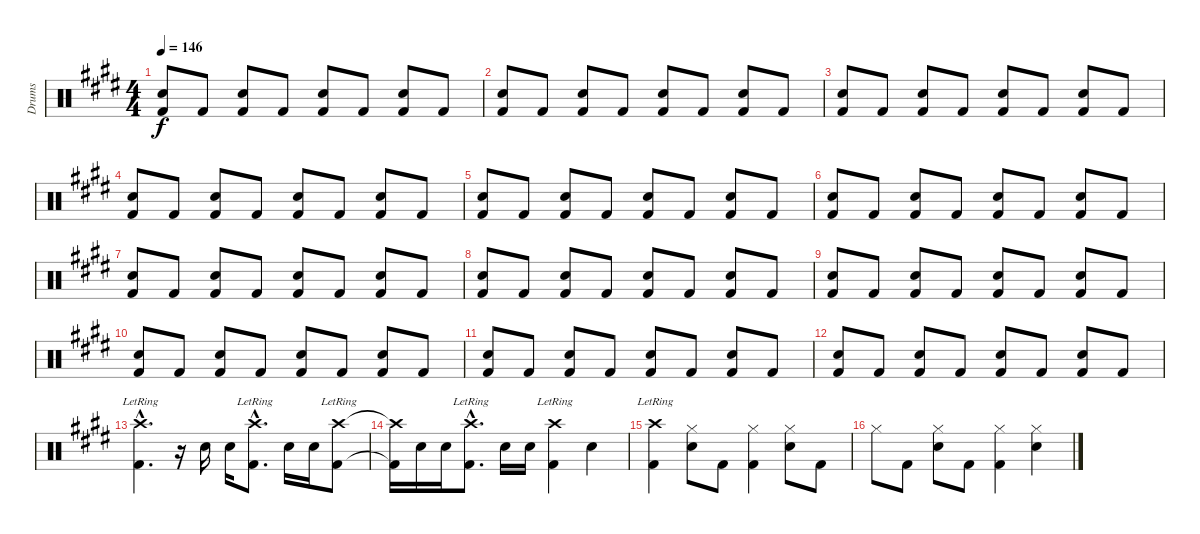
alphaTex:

\track ("Drums" "Drums") {instrument percussion}
\staff {score}
\articulation defaults
\ts (4 4)
\tempo 146
\clef neutral
\ks e
("Kick (hit) 2" "Snare (hit) 2").8{dy f} "Kick (hit) 2".8 ("Kick (hit) 2" "Snare (hit) 2").8 "Kick (hit) 2".8 ("Kick (hit) 2" "Snare (hit) 2").8 "Kick (hit) 2".8 ("Kick (hit) 2" "Snare (hit) 2").8 "Kick (hit) 2".8 |
("Kick (hit) 2" "Snare (hit) 2").8 "Kick (hit) 2".8 ("Kick (hit) 2" "Snare (hit) 2").8 "Kick (hit) 2".8 ("Kick (hit) 2" "Snare (hit) 2").8 "Kick (hit) 2".8 ("Kick (hit) 2" "Snare (hit) 2").8 "Kick (hit) 2".8 |
("Kick (hit) 2" "Snare (hit) 2").8 "Kick (hit) 2".8 ("Kick (hit) 2" "Snare (hit) 2").8 "Kick (hit) 2".8 ("Kick (hit) 2" "Snare (hit) 2").8 "Kick (hit) 2".8 ("Kick (hit) 2" "Snare (hit) 2").8 "Kick (hit) 2".8 |
("Kick (hit) 2" "Snare (hit) 2").8 "Kick (hit) 2".8 ("Kick (hit) 2" "Snare (hit) 2").8 "Kick (hit) 2".8 ("Kick (hit) 2" "Snare (hit) 2").8 "Kick (hit) 2".8 ("Kick (hit) 2" "Snare (hit) 2").8 "Kick (hit) 2".8 |
("Kick (hit) 2" "Snare (hit) 2").8 "Kick (hit) 2".8 ("Kick (hit) 2" "Snare (hit) 2").8 "Kick (hit) 2".8 ("Kick (hit) 2" "Snare (hit) 2").8 "Kick (hit) 2".8 ("Kick (hit) 2" "Snare (hit) 2").8 "Kick (hit) 2".8 |
("Kick (hit) 2" "Snare (hit) 2").8 "Kick (hit) 2".8 ("Kick (hit) 2" "Snare (hit) 2").8 "Kick (hit) 2".8 ("Kick (hit) 2" "Snare (hit) 2").8 "Kick (hit) 2".8 ("Kick (hit) 2" "Snare (hit) 2").8 "Kick (hit) 2".8 |
("Kick (hit) 2" "Snare (hit) 2").8 "Kick (hit) 2".8 ("Kick (hit) 2" "Snare (hit) 2").8 "Kick (hit) 2".8 ("Kick (hit) 2" "Snare (hit) 2").8 "Kick (hit) 2".8 ("Kick (hit) 2" "Snare (hit) 2").8 "Kick (hit) 2".8 |
("Kick (hit) 2" "Snare (hit) 2").8 "Kick (hit) 2".8 ("Kick (hit) 2" "Snare (hit) 2").8 "Kick (hit) 2".8 ("Kick (hit) 2" "Snare (hit) 2").8 "Kick (hit) 2".8 ("Kick (hit) 2" "Snare (hit) 2").8 "Kick (hit) 2".8 |
("Kick (hit) 2" "Snare (hit) 2").8 "Kick (hit) 2".8 ("Kick (hit) 2" "Snare (hit) 2").8 "Kick (hit) 2".8 ("Kick (hit) 2" "Snare (hit) 2").8 "Kick (hit) 2".8 ("Kick (hit) 2" "Snare (hit) 2").8 "Kick (hit) 2".8 |
("Kick (hit) 2" "Snare (hit) 2").8 "Kick (hit) 2".8 ("Kick (hit) 2" "Snare (hit) 2").8 "Kick (hit) 2".8 ("Kick (hit) 2" "Snare (hit) 2").8 "Kick (hit) 2".8 ("Kick (hit) 2" "Snare (hit) 2").8 "Kick (hit) 2".8 |
("Kick (hit) 2" "Snare (hit) 2").8 "Kick (hit) 2".8 ("Kick (hit) 2" "Snare (hit) 2").8 "Kick (hit) 2".8 ("Kick (hit) 2" "Snare (hit) 2").8 "Kick (hit) 2".8 ("Kick (hit) 2" "Snare (hit) 2").8 "Kick (hit) 2".8 |
("Kick (hit) 2" "Snare (hit) 2").8 "Kick (hit) 2".8 ("Kick (hit) 2" "Snare (hit) 2").8 "Kick (hit) 2".8 ("Kick (hit) 2" "Snare (hit) 2").8 "Kick (hit) 2".8 ("Kick (hit) 2" "Snare (hit) 2").8 "Kick (hit) 2".8 |
("Kick (hit) 2"{hac} "Crash high (hit)"{hac lr}).4{d} r.16 "Snare (hit) 2".16 "Snare (hit) 2".16 ("Kick (hit) 2"{hac} "Crash high (hit)"{hac lr}).8{d} "Snare (hit) 2".16 "Snare (hit) 2".16 ("Kick (hit) 2" "Crash high (hit)"{lr}).8 |
("Kick (hit) 2"{t} "Crash high (hit)"{t}).16 "Snare (hit) 2".16 "Snare (hit) 2".16 ("Kick (hit) 2"{hac} "Crash high (hit)"{hac lr}).8{d} "Snare (hit) 2".16 "Snare (hit) 2".16 ("Kick (hit) 2" "Crash high (hit)"{lr}).4 "Snare (hit) 2".4 |
("Kick (hit) 2" "Crash high (hit)"{lr}).4 ("Snare (hit) 2" "Hi-Hat (closed)").8 "Kick (hit) 2".8 ("Kick (hit) 2" "Hi-Hat (closed)").4 ("Snare (hit) 2" "Hi-Hat (closed)").8 "Kick (hit) 2".8 |
"Hi-Hat (closed)".8 "Kick (hit) 2".8 ("Snare (hit) 2" "Hi-Hat (closed)").8 "Kick (hit) 2".8 ("Kick (hit) 2" "Hi-Hat (closed)").4 ("Snare (hit) 2" "Hi-Hat (closed)").4
